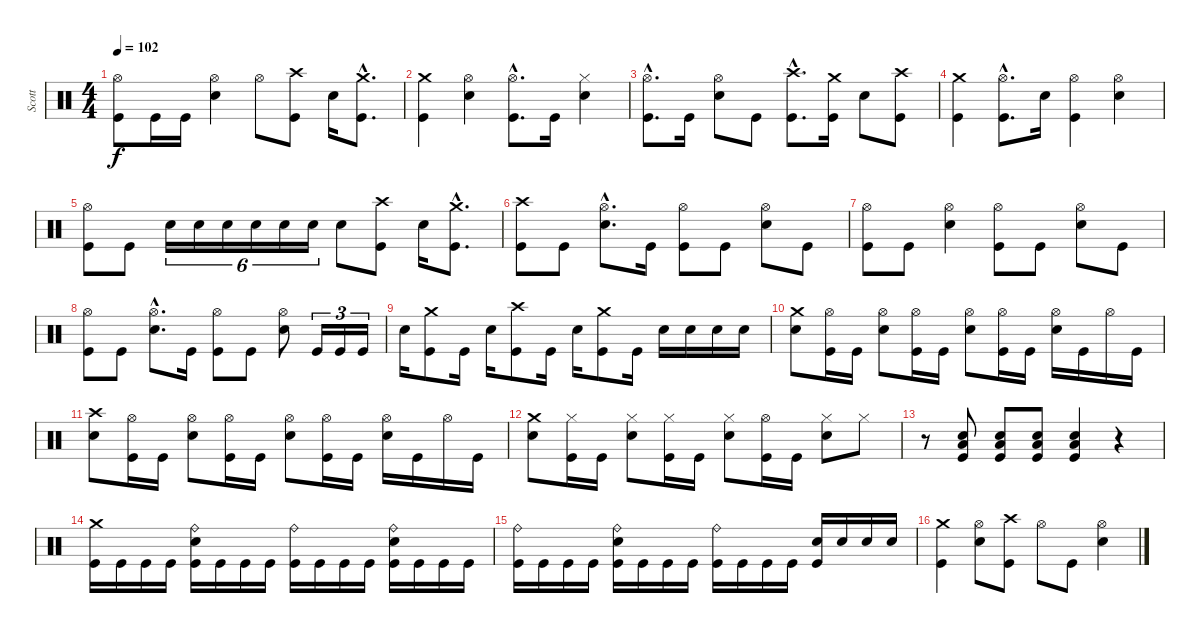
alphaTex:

\track ("Scott" "Scott") {instrument percussion}
\staff {score}
\articulation defaults
\ts (4 4)
\tempo 102
\clef neutral
\ks c
("Kick (hit)" "Hi-Hat (open)").8{dy f} "Kick (hit)".16 "Kick (hit)".16 ("Snare (hit) 2" "Hi-Hat (open)").4 "Hi-Hat (open)".8 ("Kick (hit)" "Crash high (hit)").8 "Snare (hit) 2".16 ("Kick (hit)"{hac} "Crash medium (hit)"{hac}).8{d} |
("Kick (hit)" "Crash medium (hit)").4 ("Snare (hit) 2" "Hi-Hat (open)").4 ("Kick (hit)"{hac} "Hi-Hat (open)"{hac}).8{d} "Kick (hit)".16 ("Snare (hit) 2" "Hi-Hat (closed)").4 |
("Kick (hit)"{hac} "Hi-Hat (open)"{hac}).8{d} "Kick (hit)".16 ("Snare (hit) 2" "Hi-Hat (open)").8 "Kick (hit)".8 ("Kick (hit)"{hac} "Crash high (hit)"{hac}).8{d} ("Kick (hit)" "Crash medium (hit)").16 "Snare (hit) 2".8 ("Kick (hit)" "Crash high (hit)").8 |
("Kick (hit)" "Crash medium (hit)").4 ("Kick (hit)"{hac} "Hi-Hat (open)"{hac}).8{d} "Snare (hit) 2".16 ("Kick (hit)" "Hi-Hat (open)").4 ("Snare (hit) 2" "Hi-Hat (open)").4 |
("Kick (hit)" "Hi-Hat (open)").8 "Kick (hit)".8 "Snare (hit) 2".16{tu (6 4)} "Snare (hit) 2".16{tu (6 4)} "Snare (hit) 2".16{tu (6 4)} "Snare (hit) 2".16{tu (6 4)} "Snare (hit) 2".16{tu (6 4)} "Snare (hit) 2".16{tu (6 4)} "Snare (hit) 2".8 ("Kick (hit)" "Crash high (hit)").8 "Snare (hit) 2".16 ("Kick (hit)"{hac} "Crash medium (hit)"{hac}).8{d} |
("Kick (hit)" "Crash high (hit)").8 "Kick (hit)".8 ("Snare (hit) 2"{hac} "Hi-Hat (open)"{hac}).8{d} "Kick (hit)".16 ("Kick (hit)" "Hi-Hat (open)").8 "Kick (hit)".8 ("Snare (hit) 2" "Hi-Hat (open)").8 "Kick (hit)".8 |
("Kick (hit)" "Hi-Hat (open)").8 "Kick (hit)".8 ("Snare (hit) 2" "Hi-Hat (open)").4 ("Kick (hit)" "Hi-Hat (open)").8 "Kick (hit)".8 ("Snare (hit) 2" "Hi-Hat (open)").8 "Kick (hit)".8 |
("Kick (hit)" "Hi-Hat (open)").8 "Kick (hit)".8 ("Snare (hit) 2"{hac} "Hi-Hat (open)"{hac}).8{d} "Kick (hit)".16 ("Kick (hit)" "Hi-Hat (open)").8 "Kick (hit)".8 ("Snare (hit) 2" "Hi-Hat (open)").8 "Kick (hit)".16{tu (3 2)} "Kick (hit)".16{tu (3 2)} "Kick (hit)".16{tu (3 2)} |
"Snare (hit) 2".16 ("Kick (hit)" "Crash medium (hit)").8 "Kick (hit)".16 "Snare (hit) 2".16 ("Kick (hit)" "Crash high (hit)").8 "Kick (hit)".16 "Snare (hit) 2".16 ("Kick (hit)" "Crash medium (hit)").8 "Kick (hit)".16 "Snare (hit) 2".16 "Snare (hit) 2".16 "Snare (hit) 2".16 "Snare (hit) 2".16 |
("Snare (hit) 2" "Crash medium (hit)").8 ("Kick (hit)" "Hi-Hat (open)").16 "Kick (hit)".16 ("Snare (hit) 2" "Hi-Hat (open)").8 ("Kick (hit)" "Hi-Hat (open)").16 "Kick (hit)".16 ("Snare (hit) 2" "Hi-Hat (open)").8 ("Kick (hit)" "Hi-Hat (open)").16 "Kick (hit)".16 ("Snare (hit) 2" "Hi-Hat (open)").16 "Kick (hit)".16 "Hi-Hat (open)".16 "Kick (hit)".16 |
("Snare (hit) 2" "Crash high (hit)").8 ("Kick (hit)" "Hi-Hat (open)").16 "Kick (hit)".16 ("Snare (hit) 2" "Hi-Hat (open)").8 ("Kick (hit)" "Hi-Hat (open)").16 "Kick (hit)".16 ("Snare (hit) 2" "Hi-Hat (open)").8 ("Kick (hit)" "Hi-Hat (open)").16 "Kick (hit)".16 ("Snare (hit) 2" "Hi-Hat (open)").16 "Kick (hit)".16 "Hi-Hat (open)".16 "Kick (hit)".16 |
("Snare (hit) 2" "Crash medium (hit)").8 ("Kick (hit)" "Hi-Hat (closed)").16 "Kick (hit)".16 ("Snare (hit) 2" "Hi-Hat (closed)").8 ("Kick (hit)" "Hi-Hat (closed)").16 "Kick (hit)".16 ("Snare (hit) 2" "Hi-Hat (closed)").8 ("Kick (hit)" "Hi-Hat (open)").16 "Kick (hit)".16 ("Snare (hit) 2" "Hi-Hat (closed)").8 "Hi-Hat (closed)".8 |
r.8 ("Kick (hit)" "Snare (hit) 2" "Low Floor Tom (hit)").8 ("Kick (hit)" "Snare (hit) 2" "Low Floor Tom (hit)").8 ("Kick (hit)" "Snare (hit) 2" "Low Floor Tom (hit)").8 ("Kick (hit)" "Snare (hit) 2" "Low Floor Tom (hit)").4 r.4 |
("Kick (hit)" "Crash medium (hit)").16 "Kick (hit)".16 "Kick (hit)".16 "Kick (hit)".16 ("Kick (hit)" "Snare (hit) 2" "Ride (bell)").16 "Kick (hit)".16 "Kick (hit)".16 "Kick (hit)".16 ("Kick (hit)" "Ride (bell)").16 "Kick (hit)".16 "Kick (hit)".16 "Kick (hit)".16 ("Kick (hit)" "Snare (hit) 2" "Ride (bell)").16 "Kick (hit)".16 "Kick (hit)".16 "Kick (hit)".16 |
("Kick (hit)" "Ride (bell)").16 "Kick (hit)".16 "Kick (hit)".16 "Kick (hit)".16 ("Kick (hit)" "Snare (hit) 2" "Ride (bell)").16 "Kick (hit)".16 "Kick (hit)".16 "Kick (hit)".16 ("Kick (hit)" "Ride (bell)").16 "Kick (hit)".16 "Kick (hit)".16 "Kick (hit)".16 ("Kick (hit)" "Snare (hit) 2").16 "Snare (hit) 2".16 "Snare (hit) 2".16 "Snare (hit) 2".16 |
("Kick (hit)" "Crash medium (hit)").4 ("Snare (hit) 2" "Hi-Hat (open)").8 ("Kick (hit)" "Crash high (hit)").8 "Hi-Hat (open)".8 "Kick (hit)".8 ("Snare (hit) 2" "Hi-Hat (open)").4
